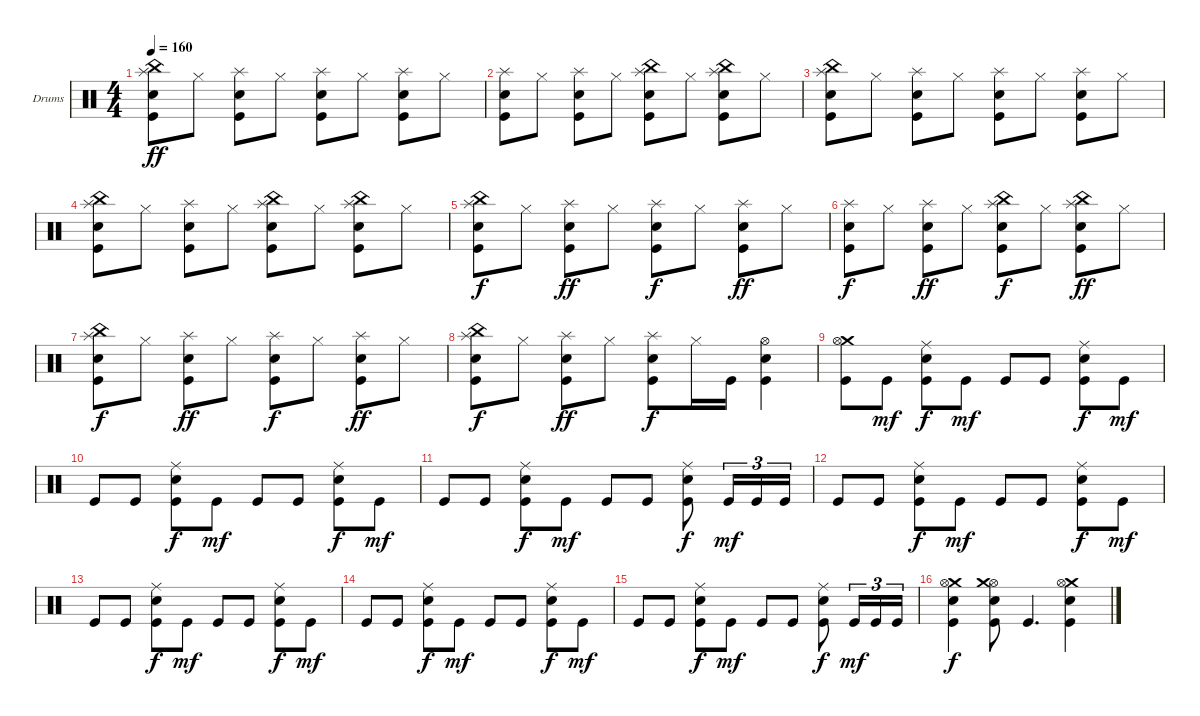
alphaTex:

\bracketExtendMode groupsimilarinstruments
\firstSystemTrackNameOrientation horizontal
\otherSystemsTrackNameOrientation horizontal
\track ("Drumkit" "Drums") {instrument percussion}
\staff {score}
\articulation defaults
\ts (4 4)
\tempo 160
\clef neutral
\ks c
("Kick (hit)" "Snare (hit) 2" "China (hit)" "Splash (hit)").8{dy ff} "Hi-Hat (closed)".8 ("Kick (hit)" "Snare (hit) 2" "Splash (hit)").8 "Hi-Hat (closed)".8 ("Kick (hit)" "Snare (hit) 2" "Splash (hit)").8 "Hi-Hat (closed)".8 ("Kick (hit)" "Snare (hit) 2" "Splash (hit)").8 "Hi-Hat (closed)".8 |
("Kick (hit)" "Snare (hit) 2" "Splash (hit)").8 "Hi-Hat (closed)".8 ("Kick (hit)" "Snare (hit) 2" "Splash (hit)").8 "Hi-Hat (closed)".8 ("Kick (hit)" "Snare (hit) 2" "Splash (hit)" "China (hit)").8 "Hi-Hat (closed)".8 ("Kick (hit)" "Snare (hit) 2" "Splash (hit)" "China (hit)").8 "Hi-Hat (closed)".8 |
("Kick (hit)" "Snare (hit) 2" "Splash (hit)" "China (hit)").8 "Hi-Hat (closed)".8 ("Kick (hit)" "Snare (hit) 2" "Splash (hit)").8 "Hi-Hat (closed)".8 ("Kick (hit)" "Snare (hit) 2" "Splash (hit)").8 "Hi-Hat (closed)".8 ("Kick (hit)" "Snare (hit) 2" "Splash (hit)").8 "Hi-Hat (closed)".8 |
("Kick (hit)" "Snare (hit) 2" "Splash (hit)" "China (hit)").8 "Hi-Hat (closed)".8 ("Kick (hit)" "Snare (hit) 2" "Splash (hit)").8 "Hi-Hat (closed)".8 ("Kick (hit)" "Snare (hit) 2" "Splash (hit)" "China (hit)").8 "Hi-Hat (closed)".8 ("Kick (hit)" "Snare (hit) 2" "Splash (hit)" "China (hit)").8 "Hi-Hat (closed)".8 |
("Kick (hit)" "Snare (hit) 2" "Splash (hit)" "China (hit)").8{dy f} "Hi-Hat (closed)".8 ("Kick (hit)" "Snare (hit) 2" "Splash (hit)").8{dy ff} "Hi-Hat (closed)".8 ("Kick (hit)" "Snare (hit) 2" "Splash (hit)").8{dy f} "Hi-Hat (closed)".8 ("Kick (hit)" "Snare (hit) 2" "Splash (hit)").8{dy ff} "Hi-Hat (closed)".8 |
("Kick (hit)" "Snare (hit) 2" "Splash (hit)").8{dy f} "Hi-Hat (closed)".8 ("Kick (hit)" "Snare (hit) 2" "Splash (hit)").8{dy ff} "Hi-Hat (closed)".8 ("Kick (hit)" "Snare (hit) 2" "Splash (hit)" "China (hit)").8{dy f} "Hi-Hat (closed)".8 ("Kick (hit)" "Snare (hit) 2" "Splash (hit)" "China (hit)").8{dy ff} "Hi-Hat (closed)".8 |
("Kick (hit)" "Snare (hit) 2" "Splash (hit)" "China (hit)").8{dy f} "Hi-Hat (closed)".8 ("Kick (hit)" "Snare (hit) 2" "Splash (hit)").8{dy ff} "Hi-Hat (closed)".8 ("Kick (hit)" "Snare (hit) 2" "Splash (hit)").8{dy f} "Hi-Hat (closed)".8 ("Kick (hit)" "Snare (hit) 2" "Splash (hit)").8{dy ff} "Hi-Hat (closed)".8 |
("Kick (hit)" "Snare (hit) 2" "Splash (hit)" "China (hit)").8{dy f} "Hi-Hat (closed)".8 ("Kick (hit)" "Snare (hit) 2" "Splash (hit)").8{dy ff} "Hi-Hat (closed)".8 ("Kick (hit)" "Snare (hit) 2" "Splash (hit)").8{dy f} "Hi-Hat (closed)".16 "Kick (hit)".16 ("Kick (hit)" "Snare (hit) 2" "Hi-Hat (open)").4 |
("Crash medium (hit)" "Hi-Hat (open)" "Kick (hit)").8 "Kick (hit)".8{dy mf} ("Kick (hit)" "Snare (hit) 2" "Ride (middle)").8{dy f} "Kick (hit)".8{dy mf} "Kick (hit)".8 "Kick (hit)".8 ("Kick (hit)" "Snare (hit) 2" "Ride (middle)").8{dy f} "Kick (hit)".8{dy mf} |
"Kick (hit)".8 "Kick (hit)".8 ("Kick (hit)" "Snare (hit) 2" "Ride (middle)").8{dy f} "Kick (hit)".8{dy mf} "Kick (hit)".8 "Kick (hit)".8 ("Kick (hit)" "Snare (hit) 2" "Ride (middle)").8{dy f} "Kick (hit)".8{dy mf} |
"Kick (hit)".8 "Kick (hit)".8 ("Kick (hit)" "Snare (hit) 2" "Ride (middle)").8{dy f} "Kick (hit)".8{dy mf} "Kick (hit)".8 "Kick (hit)".8 ("Kick (hit)" "Snare (hit) 2" "Ride (middle)").8{dy f} "Kick (hit)".16{tu (3 2) dy mf} "Kick (hit)".16{tu (3 2)} "Kick (hit)".16{tu (3 2)} |
"Kick (hit)".8 "Kick (hit)".8 ("Kick (hit)" "Snare (hit) 2" "Ride (middle)").8{dy f} "Kick (hit)".8{dy mf} "Kick (hit)".8 "Kick (hit)".8 ("Kick (hit)" "Snare (hit) 2" "Ride (middle)").8{dy f} "Kick (hit)".8{dy mf} |
"Kick (hit)".8 "Kick (hit)".8 ("Kick (hit)" "Snare (hit) 2" "Ride (middle)").8{dy f} "Kick (hit)".8{dy mf} "Kick (hit)".8 "Kick (hit)".8 ("Kick (hit)" "Snare (hit) 2" "Ride (middle)").8{dy f} "Kick (hit)".8{dy mf} |
"Kick (hit)".8 "Kick (hit)".8 ("Kick (hit)" "Snare (hit) 2" "Ride (middle)").8{dy f} "Kick (hit)".8{dy mf} "Kick (hit)".8 "Kick (hit)".8 ("Kick (hit)" "Snare (hit) 2" "Ride (middle)").8{dy f} "Kick (hit)".8{dy mf} |
"Kick (hit)".8 "Kick (hit)".8 ("Kick (hit)" "Snare (hit) 2" "Ride (middle)").8{dy f} "Kick (hit)".8{dy mf} "Kick (hit)".8 "Kick (hit)".8 ("Kick (hit)" "Snare (hit) 2" "Ride (middle)").8{dy f} "Kick (hit)".16{tu (3 2) dy mf} "Kick (hit)".16{tu (3 2)} "Kick (hit)".16{tu (3 2)} |
("Crash medium (hit)" "Hi-Hat (open)" "Kick (hit)" "Snare (hit) 2").4{dy f} ("Kick (hit)" "Hi-Hat (open)" "Crash medium (hit)" "Snare (hit) 2").8 "Kick (hit)".4{d} ("Crash medium (hit)" "Hi-Hat (open)" "Kick (hit)" "Snare (hit) 2").4
